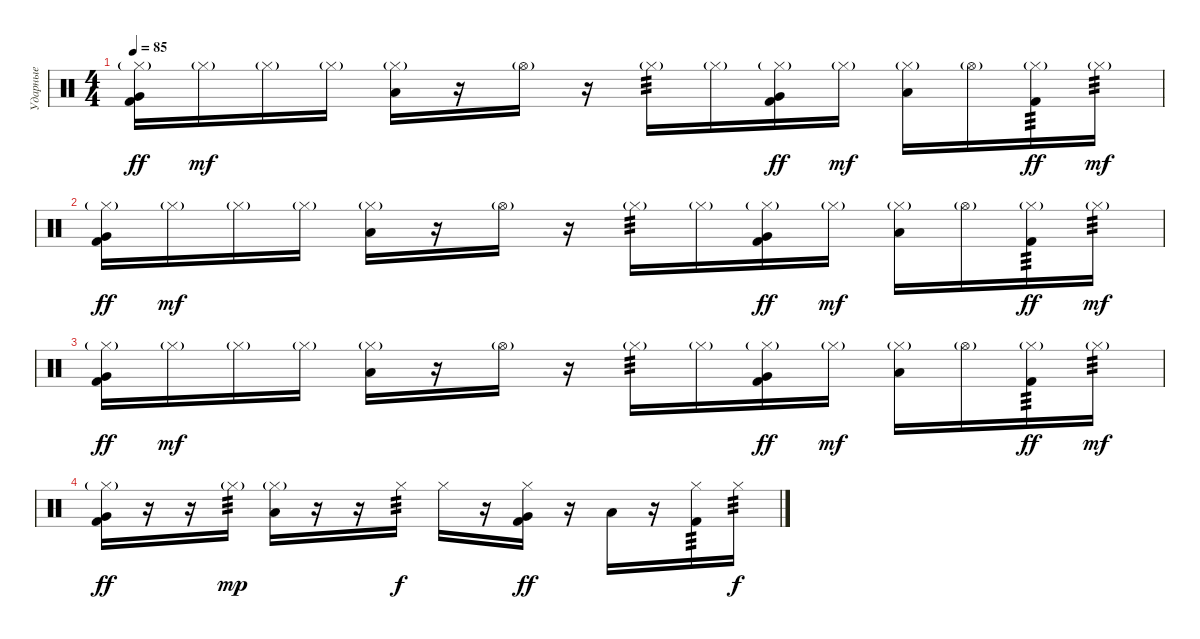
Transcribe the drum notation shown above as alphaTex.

\track ("Ударные" "Ударные") {instrument percussion}
\staff {score}
\articulation defaults
\ts (4 4)
\tempo 85
\clef neutral
\ks c
("Very Low Tom (hit)" "Hi-Hat (closed)"{g} "Kick (hit) 2").16{dy ff} "Hi-Hat (closed)"{g}.16{dy mf} "Hi-Hat (closed)"{g}.16 "Hi-Hat (closed)"{g}.16 ("Low Tom (hit)" "Hi-Hat (closed)"{g}).16 r.16 "Hi-Hat (open)"{g}.16 r.16 "Hi-Hat (closed)"{g}.16{tp 3} "Hi-Hat (closed)"{g}.16 ("Very Low Tom (hit)" "Hi-Hat (closed)"{g} "Kick (hit) 2").16{dy ff} "Hi-Hat (closed)"{g}.16{dy mf} ("Low Tom (hit)" "Hi-Hat (closed)"{g}).16 "Hi-Hat (open)"{g}.16 ("Hi-Hat (closed)"{g} "Kick (hit) 2").16{tp 3 dy ff} "Hi-Hat (closed)"{g}.16{tp 3 dy mf} |
("Very Low Tom (hit)" "Hi-Hat (closed)"{g} "Kick (hit) 2").16{dy ff} "Hi-Hat (closed)"{g}.16{dy mf} "Hi-Hat (closed)"{g}.16 "Hi-Hat (closed)"{g}.16 ("Low Tom (hit)" "Hi-Hat (closed)"{g}).16 r.16 "Hi-Hat (open)"{g}.16 r.16 "Hi-Hat (closed)"{g}.16{tp 3} "Hi-Hat (closed)"{g}.16 ("Very Low Tom (hit)" "Hi-Hat (closed)"{g} "Kick (hit) 2").16{dy ff} "Hi-Hat (closed)"{g}.16{dy mf} ("Low Tom (hit)" "Hi-Hat (closed)"{g}).16 "Hi-Hat (open)"{g}.16 ("Hi-Hat (closed)"{g} "Kick (hit) 2").16{tp 3 dy ff} "Hi-Hat (closed)"{g}.16{tp 3 dy mf} |
("Very Low Tom (hit)" "Hi-Hat (closed)"{g} "Kick (hit) 2").16{dy ff} "Hi-Hat (closed)"{g}.16{dy mf} "Hi-Hat (closed)"{g}.16 "Hi-Hat (closed)"{g}.16 ("Low Tom (hit)" "Hi-Hat (closed)"{g}).16 r.16 "Hi-Hat (open)"{g}.16 r.16 "Hi-Hat (closed)"{g}.16{tp 3} "Hi-Hat (closed)"{g}.16 ("Very Low Tom (hit)" "Hi-Hat (closed)"{g} "Kick (hit) 2").16{dy ff} "Hi-Hat (closed)"{g}.16{dy mf} ("Low Tom (hit)" "Hi-Hat (closed)"{g}).16 "Hi-Hat (open)"{g}.16 ("Hi-Hat (closed)"{g} "Kick (hit) 2").16{tp 3 dy ff} "Hi-Hat (closed)"{g}.16{tp 3 dy mf} |
("Very Low Tom (hit)" "Hi-Hat (closed)"{g} "Kick (hit) 2").16{dy ff} r.16 r.16 "Hi-Hat (closed)"{g}.16{tp 3 dy mp} ("Low Tom (hit)" "Hi-Hat (closed)"{g}).16 r.16 r.16 "Hi-Hat (closed)".16{tp 3 dy f} "Hi-Hat (closed)".16 r.16 ("Very Low Tom (hit)" "Hi-Hat (closed)" "Kick (hit) 2").16{dy ff} r.16 "Low Tom (hit)".16 r.16 ("Hi-Hat (closed)" "Kick (hit) 2").16{tp 3} "Hi-Hat (closed)".16{tp 3 dy f}
